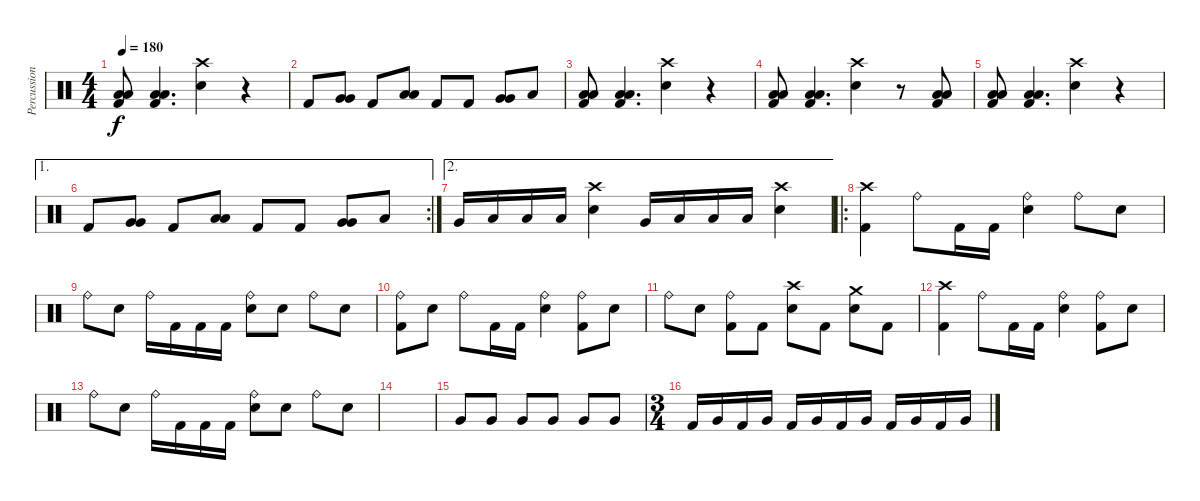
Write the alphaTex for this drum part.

\track ("Percussions" "Percussion") {instrument percussion}
\staff {score}
\articulation defaults
\ts (4 4)
\tempo 180
\clef neutral
\ks c
("Low Floor Tom (hit)" "Low Floor Tom (hit)" "Kick (hit) 2").8{dy f} ("Low Floor Tom (hit)" "Low Floor Tom (hit)" "Kick (hit) 2").4{d} ("Crash high (hit)" "Snare (hit) 2").4 r.4 |
"Kick (hit) 2".8 ("Very Low Tom (hit)" "Very Low Tom (hit)").8{bd 240} "Kick (hit) 2".8 ("Low Floor Tom (hit)" "Low Floor Tom (hit)").8{bd 240} "Kick (hit) 2".8 "Kick (hit) 2".8 ("Very Low Tom (hit)" "Very Low Tom (hit)").8{bd 240} "Low Floor Tom (hit)".8 |
("Low Floor Tom (hit)" "Low Floor Tom (hit)" "Kick (hit) 2").8 ("Low Floor Tom (hit)" "Low Floor Tom (hit)" "Kick (hit) 2").4{d} ("Crash high (hit)" "Snare (hit) 2").4 r.4 |
("Low Floor Tom (hit)" "Low Floor Tom (hit)" "Kick (hit) 2").8 ("Low Floor Tom (hit)" "Low Floor Tom (hit)" "Kick (hit) 2").4{d} ("Crash high (hit)" "Snare (hit) 2").4 r.8 ("Low Floor Tom (hit)" "Low Floor Tom (hit)" "Kick (hit) 2").8 |
("Low Floor Tom (hit)" "Low Floor Tom (hit)" "Kick (hit) 2").8 ("Low Floor Tom (hit)" "Low Floor Tom (hit)" "Kick (hit) 2").4{d} ("Crash high (hit)" "Snare (hit) 2").4 r.4 |
\ae 1
\rc 2 "Kick (hit) 2".8
("Very Low Tom (hit)" "Very Low Tom (hit)").8{bd 240} "Kick (hit) 2".8 ("Low Floor Tom (hit)" "Low Floor Tom (hit)").8{bd 240} "Kick (hit) 2".8 "Kick (hit) 2".8 ("Very Low Tom (hit)" "Very Low Tom (hit)").8{bd 240} "Low Floor Tom (hit)".8 |
\ae 2 "Very Low Tom (hit)".16 "Low Floor Tom (hit)".16 "Low Floor Tom (hit)".16 "Low Floor Tom (hit)".16
("Crash high (hit)" "Snare (hit) 2").4 "Very Low Tom (hit)".16 "Low Floor Tom (hit)".16 "Low Floor Tom (hit)".16 "Low Floor Tom (hit)".16 ("Crash high (hit)" "Snare (hit) 2").4 |
\ro
("Crash high (hit)" "Kick (hit) 2").4 "Ride (bell)".8 "Kick (hit) 2".16 "Kick (hit) 2".16 ("Ride (bell)" "Snare (hit) 2").4 "Ride (bell)".8 "Snare (hit) 2".8 |
"Ride (bell)".8 "Snare (hit) 2".8 "Ride (bell)".16 "Kick (hit) 2".16 "Kick (hit) 2".16 "Kick (hit) 2".16 ("Ride (bell)" "Snare (hit) 2").8 "Snare (hit) 2".8 "Ride (bell)".8 "Snare (hit) 2".8 |
("Ride (bell)" "Kick (hit) 2").8 "Snare (hit) 2".8 "Ride (bell)".8 "Kick (hit) 2".16 "Kick (hit) 2".16 ("Ride (bell)" "Snare (hit) 2").4 ("Ride (bell)" "Kick (hit) 2").8 "Snare (hit) 2".8 |
"Ride (bell)".8 "Snare (hit) 2".8 ("Ride (bell)" "Kick (hit) 2").8 "Kick (hit) 2".8 ("Crash high (hit)" "Snare (hit) 2").8 "Kick (hit) 2".8 ("Crash medium (hit)" "Snare (hit) 2").8 "Kick (hit) 2".8 |
("Crash high (hit)" "Kick (hit) 2").4 "Ride (bell)".8 "Kick (hit) 2".16 "Kick (hit) 2".16 ("Ride (bell)" "Snare (hit) 2").4 ("Ride (bell)" "Kick (hit) 2").8 "Snare (hit) 2".8 |
"Ride (bell)".8 "Snare (hit) 2".8 "Ride (bell)".16 "Kick (hit) 2".16 "Kick (hit) 2".16 "Kick (hit) 2".16 ("Ride (bell)" "Snare (hit) 2").8 "Snare (hit) 2".8 "Ride (bell)".8 "Snare (hit) 2".8 |
|
"Very Low Tom (hit)".8 "Very Low Tom (hit)".8 "Very Low Tom (hit)".8 "Very Low Tom (hit)".8 "Very Low Tom (hit)".8 "Very Low Tom (hit)".8 |
\ts (3 4)
"Kick (hit) 2".16 "Very Low Tom (hit)".16 "Kick (hit) 2".16 "Very Low Tom (hit)".16 "Kick (hit) 2".16 "Very Low Tom (hit)".16 "Kick (hit) 2".16 "Very Low Tom (hit)".16 "Kick (hit) 2".16 "Very Low Tom (hit)".16 "Kick (hit) 2".16 "Very Low Tom (hit)".16
